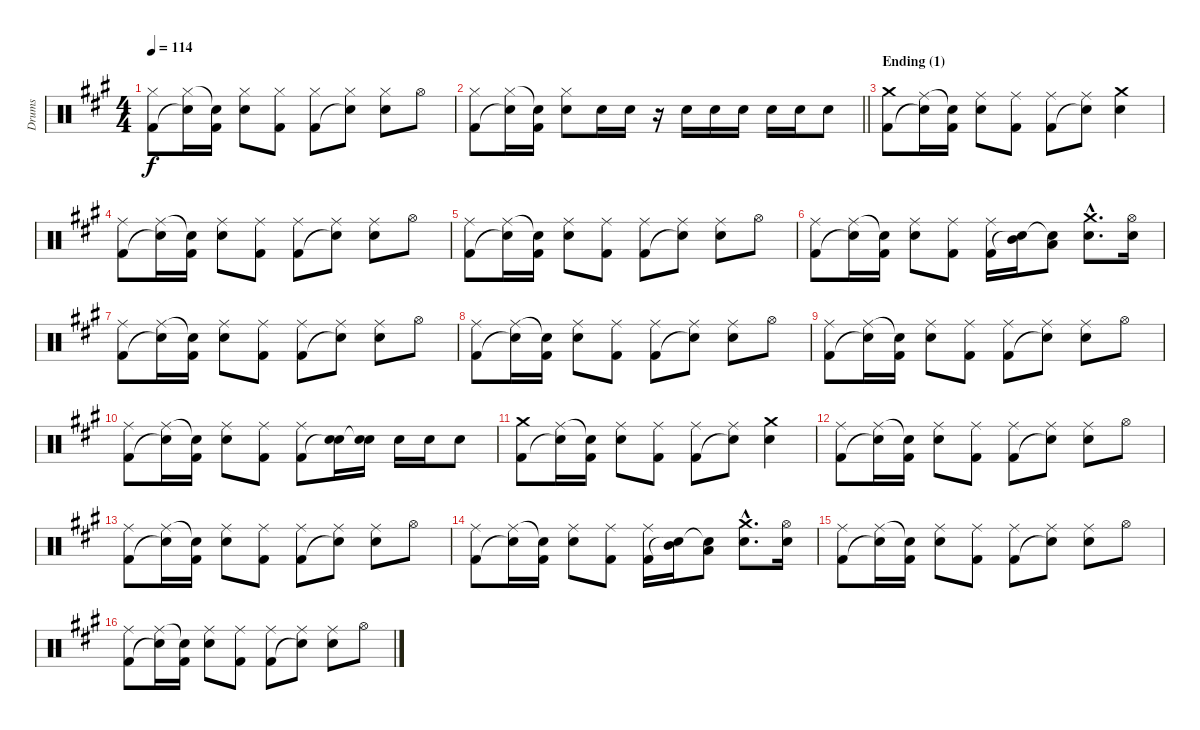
\track ("Drums" "Drums") {instrument percussion}
\staff {score}
\articulation defaults
\ts (4 4)
\tempo 114
\clef neutral
\ks a
("Hi-Hat (closed)" "Kick (hit) 2").8{dy f} ("Hi-Hat (closed)" "Snare (hit)"{t}).16 ("Snare (hit)"{t} "Kick (hit) 2").16 ("Hi-Hat (closed)" "Electric Snare (hit)").8 ("Hi-Hat (closed)" "Kick (hit) 2").8 ("Hi-Hat (closed)" "Kick (hit) 2").8 ("Hi-Hat (closed)" "Snare (hit)"{t}).8 ("Hi-Hat (closed)" "Electric Snare (hit)").8 "Hi-Hat (open)".8 |
\barLineRight lightlight
("Hi-Hat (closed)" "Kick (hit) 2").8 ("Hi-Hat (closed)" "Snare (hit)"{t}).16 ("Snare (hit)"{t} "Kick (hit) 2").16 ("Hi-Hat (closed)" "Electric Snare (hit)").8 "Electric Snare (hit)".16 "Electric Snare (hit)".16 r.16 "Electric Snare (hit)".16 "Electric Snare (hit)".16 "Electric Snare (hit)".16 "Electric Snare (hit)".16 "Electric Snare (hit)".16 "Electric Snare (hit)".8 |
\section ("" "Ending (1)")
("Crash medium (hit)" "Kick (hit) 2").8 ("Ride (middle)" "Snare (hit)"{t}).16 ("Snare (hit)"{t} "Kick (hit) 2").16 ("Ride (middle)" "Electric Snare (hit)").8 ("Ride (middle)" "Kick (hit) 2").8 ("Ride (middle)" "Kick (hit) 2").8 ("Ride (middle)" "Snare (hit)"{t}).8 ("Crash medium (hit)" "Electric Snare (hit)").4 |
("Ride (middle)" "Kick (hit) 2").8 ("Ride (middle)" "Snare (hit)"{t}).16 ("Snare (hit)"{t} "Kick (hit) 2").16 ("Ride (middle)" "Electric Snare (hit)").8 ("Ride (middle)" "Kick (hit) 2").8 ("Ride (middle)" "Kick (hit) 2").8 ("Ride (middle)" "Snare (hit)"{t}).8 ("Ride (middle)" "Electric Snare (hit)").8 "Hi-Hat (open)".8 |
("Ride (middle)" "Kick (hit) 2").8 ("Ride (middle)" "Snare (hit)"{t}).16 ("Snare (hit)"{t} "Kick (hit) 2").16 ("Ride (middle)" "Electric Snare (hit)").8 ("Ride (middle)" "Kick (hit) 2").8 ("Ride (middle)" "Kick (hit) 2").8 ("Ride (middle)" "Snare (hit)"{t}).8 ("Ride (middle)" "Electric Snare (hit)").8 "Hi-Hat (open)".8 |
("Ride (middle)" "Kick (hit) 2").8 ("Ride (middle)" "Snare (hit)"{t}).16 ("Snare (hit)"{t} "Kick (hit) 2").16 ("Ride (middle)" "Electric Snare (hit)").8 ("Ride (middle)" "Kick (hit) 2").8 ("Ride (middle)" "Kick (hit) 2").16 ("Mid Tom (hit)" "Snare (hit)"{t}).16 ("Low Tom (hit)" "Snare (hit)"{t}).8 ("Crash medium (hit)"{hac} "Electric Snare (hit)"{hac}).8{d} ("Hi-Hat (open)" "Electric Snare (hit)").16 |
("Ride (middle)" "Kick (hit) 2").8 ("Ride (middle)" "Snare (hit)"{t}).16 ("Snare (hit)"{t} "Kick (hit) 2").16 ("Ride (middle)" "Electric Snare (hit)").8 ("Ride (middle)" "Kick (hit) 2").8 ("Ride (middle)" "Kick (hit) 2").8 ("Ride (middle)" "Snare (hit)"{t}).8 ("Ride (middle)" "Electric Snare (hit)").8 "Hi-Hat (open)".8 |
("Ride (middle)" "Kick (hit) 2").8 ("Ride (middle)" "Snare (hit)"{t}).16 ("Snare (hit)"{t} "Kick (hit) 2").16 ("Ride (middle)" "Electric Snare (hit)").8 ("Ride (middle)" "Kick (hit) 2").8 ("Ride (middle)" "Kick (hit) 2").8 ("Ride (middle)" "Snare (hit)"{t}).8 ("Ride (middle)" "Electric Snare (hit)").8 "Hi-Hat (open)".8 |
("Ride (middle)" "Kick (hit) 2").8 ("Ride (middle)" "Snare (hit)"{t}).16 ("Snare (hit)"{t} "Kick (hit) 2").16 ("Ride (middle)" "Electric Snare (hit)").8 ("Ride (middle)" "Kick (hit) 2").8 ("Ride (middle)" "Kick (hit) 2").8 ("Ride (middle)" "Snare (hit)"{t}).8 ("Ride (middle)" "Electric Snare (hit)").8 "Hi-Hat (open)".8 |
("Ride (middle)" "Kick (hit) 2").8 ("Ride (middle)" "Snare (hit)"{t}).16 ("Snare (hit)"{t} "Kick (hit) 2").16 ("Ride (middle)" "Electric Snare (hit)").8 ("Ride (middle)" "Kick (hit) 2").8 ("Ride (middle)" "Kick (hit) 2").8 ("Electric Snare (hit)" "Snare (hit)"{t}).16 ("Electric Snare (hit)" "Snare (hit)"{t}).16 "Electric Snare (hit)".16 "Electric Snare (hit)".16 "Electric Snare (hit)".8 |
("Crash medium (hit)" "Kick (hit) 2").8 ("Ride (middle)" "Snare (hit)"{t}).16 ("Snare (hit)"{t} "Kick (hit) 2").16 ("Ride (middle)" "Electric Snare (hit)").8 ("Ride (middle)" "Kick (hit) 2").8 ("Ride (middle)" "Kick (hit) 2").8 ("Ride (middle)" "Snare (hit)"{t}).8 ("Crash medium (hit)" "Electric Snare (hit)").4 |
("Ride (middle)" "Kick (hit) 2").8 ("Ride (middle)" "Snare (hit)"{t}).16 ("Snare (hit)"{t} "Kick (hit) 2").16 ("Ride (middle)" "Electric Snare (hit)").8 ("Ride (middle)" "Kick (hit) 2").8 ("Ride (middle)" "Kick (hit) 2").8 ("Ride (middle)" "Snare (hit)"{t}).8 ("Ride (middle)" "Electric Snare (hit)").8 "Hi-Hat (open)".8 |
("Ride (middle)" "Kick (hit) 2").8 ("Ride (middle)" "Snare (hit)"{t}).16 ("Snare (hit)"{t} "Kick (hit) 2").16 ("Ride (middle)" "Electric Snare (hit)").8 ("Ride (middle)" "Kick (hit) 2").8 ("Ride (middle)" "Kick (hit) 2").8 ("Ride (middle)" "Snare (hit)"{t}).8 ("Ride (middle)" "Electric Snare (hit)").8 "Hi-Hat (open)".8 |
("Ride (middle)" "Kick (hit) 2").8 ("Ride (middle)" "Snare (hit)"{t}).16 ("Snare (hit)"{t} "Kick (hit) 2").16 ("Ride (middle)" "Electric Snare (hit)").8 ("Ride (middle)" "Kick (hit) 2").8 ("Ride (middle)" "Kick (hit) 2").16 ("Mid Tom (hit)" "Snare (hit)"{t}).16 ("Low Tom (hit)" "Snare (hit)"{t}).8 ("Crash medium (hit)"{hac} "Electric Snare (hit)"{hac}).8{d} ("Hi-Hat (open)" "Electric Snare (hit)").16 |
("Ride (middle)" "Kick (hit) 2").8 ("Ride (middle)" "Snare (hit)"{t}).16 ("Snare (hit)"{t} "Kick (hit) 2").16 ("Ride (middle)" "Electric Snare (hit)").8 ("Ride (middle)" "Kick (hit) 2").8 ("Ride (middle)" "Kick (hit) 2").8 ("Ride (middle)" "Snare (hit)"{t}).8 ("Ride (middle)" "Electric Snare (hit)").8 "Hi-Hat (open)".8 |
("Ride (middle)" "Kick (hit) 2").8 ("Ride (middle)" "Snare (hit)"{t}).16 ("Snare (hit)"{t} "Kick (hit) 2").16 ("Ride (middle)" "Electric Snare (hit)").8 ("Ride (middle)" "Kick (hit) 2").8 ("Ride (middle)" "Kick (hit) 2").8 ("Ride (middle)" "Snare (hit)"{t}).8 ("Ride (middle)" "Electric Snare (hit)").8 "Hi-Hat (open)".8
